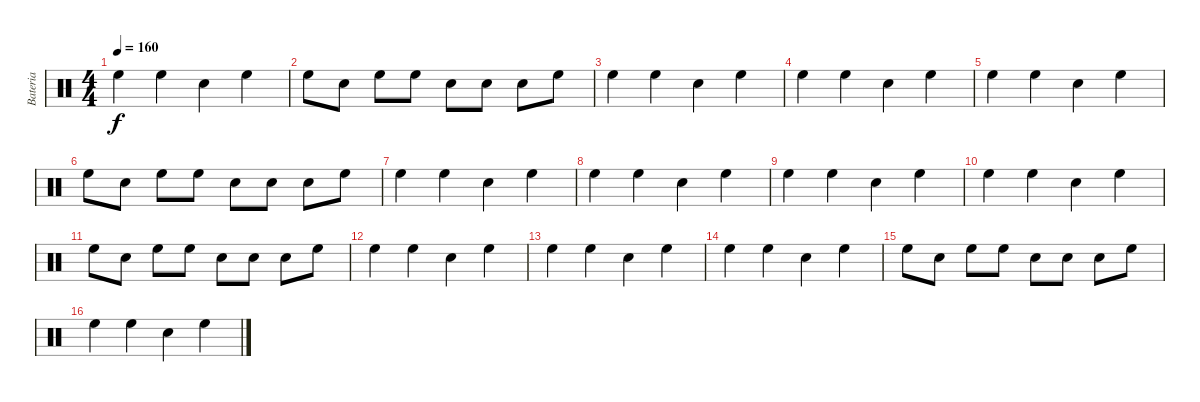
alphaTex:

\track ("Bateria" "Bateria") {instrument percussion}
\staff {score}
\articulation defaults
\ts (4 4)
\tempo 160
\clef neutral
\ks c "High Floor Tom (hit)".4{dy f} "High Floor Tom (hit)".4 "Snare (hit) 2".4 "High Floor Tom (hit)".4
|
"High Floor Tom (hit)".8 "Snare (hit) 2".8 "High Floor Tom (hit)".8 "High Floor Tom (hit)".8 "Snare (hit) 2".8 "Snare (hit) 2".8 "Snare (hit) 2".8 "High Floor Tom (hit)".8 |
"High Floor Tom (hit)".4 "High Floor Tom (hit)".4 "Snare (hit) 2".4 "High Floor Tom (hit)".4 |
"High Floor Tom (hit)".4 "High Floor Tom (hit)".4 "Snare (hit) 2".4 "High Floor Tom (hit)".4 |
"High Floor Tom (hit)".4 "High Floor Tom (hit)".4 "Snare (hit) 2".4 "High Floor Tom (hit)".4 |
"High Floor Tom (hit)".8 "Snare (hit) 2".8 "High Floor Tom (hit)".8 "High Floor Tom (hit)".8 "Snare (hit) 2".8 "Snare (hit) 2".8 "Snare (hit) 2".8 "High Floor Tom (hit)".8 |
"High Floor Tom (hit)".4 "High Floor Tom (hit)".4 "Snare (hit) 2".4 "High Floor Tom (hit)".4 |
"High Floor Tom (hit)".4 "High Floor Tom (hit)".4 "Snare (hit) 2".4 "High Floor Tom (hit)".4 |
"High Floor Tom (hit)".4 "High Floor Tom (hit)".4 "Snare (hit) 2".4 "High Floor Tom (hit)".4 |
"High Floor Tom (hit)".4 "High Floor Tom (hit)".4 "Snare (hit) 2".4 "High Floor Tom (hit)".4 |
"High Floor Tom (hit)".8 "Snare (hit) 2".8 "High Floor Tom (hit)".8 "High Floor Tom (hit)".8 "Snare (hit) 2".8 "Snare (hit) 2".8 "Snare (hit) 2".8 "High Floor Tom (hit)".8 |
"High Floor Tom (hit)".4 "High Floor Tom (hit)".4 "Snare (hit) 2".4 "High Floor Tom (hit)".4 |
"High Floor Tom (hit)".4 "High Floor Tom (hit)".4 "Snare (hit) 2".4 "High Floor Tom (hit)".4 |
"High Floor Tom (hit)".4 "High Floor Tom (hit)".4 "Snare (hit) 2".4 "High Floor Tom (hit)".4 |
"High Floor Tom (hit)".8 "Snare (hit) 2".8 "High Floor Tom (hit)".8 "High Floor Tom (hit)".8 "Snare (hit) 2".8 "Snare (hit) 2".8 "Snare (hit) 2".8 "High Floor Tom (hit)".8 |
"High Floor Tom (hit)".4 "High Floor Tom (hit)".4 "Snare (hit) 2".4 "High Floor Tom (hit)".4
